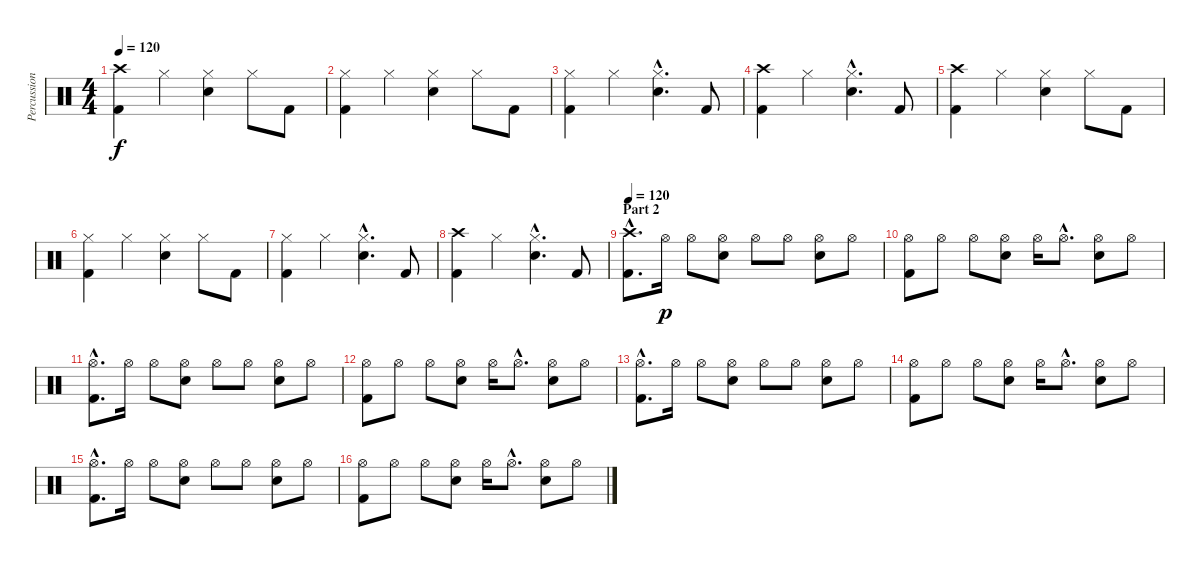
\track ("Percussion" "Percussion") {instrument percussion}
\staff {score}
\articulation defaults
\ts (4 4)
\tempo 120
\clef neutral
\ks c
("Crash high (hit)" "Kick (hit) 2").4{dy f} "Hi-Hat (closed)".4 ("Hi-Hat (closed)" "Electric Snare (hit)").4 "Hi-Hat (closed)".8 "Kick (hit) 2".8 |
("Hi-Hat (closed)" "Kick (hit) 2").4 "Hi-Hat (closed)".4 ("Hi-Hat (closed)" "Electric Snare (hit)").4 "Hi-Hat (closed)".8 "Kick (hit) 2".8 |
("Hi-Hat (closed)" "Kick (hit) 2").4 "Hi-Hat (closed)".4 ("Hi-Hat (closed)"{hac} "Electric Snare (hit)"{hac}).4{d} "Kick (hit) 2".8 |
("Crash high (hit)" "Kick (hit) 2").4 "Hi-Hat (closed)".4 ("Hi-Hat (closed)"{hac} "Electric Snare (hit)"{hac}).4{d} "Kick (hit) 2".8 |
("Crash high (hit)" "Kick (hit) 2").4 "Hi-Hat (closed)".4 ("Hi-Hat (closed)" "Electric Snare (hit)").4 "Hi-Hat (closed)".8 "Kick (hit) 2".8 |
("Hi-Hat (closed)" "Kick (hit) 2").4 "Hi-Hat (closed)".4 ("Hi-Hat (closed)" "Electric Snare (hit)").4 "Hi-Hat (closed)".8 "Kick (hit) 2".8 |
("Hi-Hat (closed)" "Kick (hit) 2").4 "Hi-Hat (closed)".4 ("Hi-Hat (closed)"{hac} "Electric Snare (hit)"{hac}).4{d} "Kick (hit) 2".8 |
("Crash high (hit)" "Kick (hit) 2").4 "Hi-Hat (closed)".4 ("Hi-Hat (closed)"{hac} "Electric Snare (hit)"{hac}).4{d} "Kick (hit) 2".8 |
\section ("" "Part 2")
\tempo 120
("Crash high (hit)"{hac} "Kick (hit) 2"{hac}).8{d} "Hi-Hat (open)".16{dy p} "Hi-Hat (open)".8 ("Hi-Hat (open)" "Electric Snare (hit)").8 "Hi-Hat (open)".8 "Hi-Hat (open)".8 ("Hi-Hat (open)" "Electric Snare (hit)").8 "Hi-Hat (open)".8 |
("Hi-Hat (open)" "Kick (hit) 2").8 "Hi-Hat (open)".8 "Hi-Hat (open)".8 ("Hi-Hat (open)" "Electric Snare (hit)").8 "Hi-Hat (open)".16 "Hi-Hat (open)"{hac}.8{d} ("Hi-Hat (open)" "Electric Snare (hit)").8 "Hi-Hat (open)".8 |
("Hi-Hat (open)"{hac} "Kick (hit) 2"{hac}).8{d} "Hi-Hat (open)".16 "Hi-Hat (open)".8 ("Hi-Hat (open)" "Electric Snare (hit)").8 "Hi-Hat (open)".8 "Hi-Hat (open)".8 ("Hi-Hat (open)" "Electric Snare (hit)").8 "Hi-Hat (open)".8 |
("Hi-Hat (open)" "Kick (hit) 2").8 "Hi-Hat (open)".8 "Hi-Hat (open)".8 ("Hi-Hat (open)" "Electric Snare (hit)").8 "Hi-Hat (open)".16 "Hi-Hat (open)"{hac}.8{d} ("Hi-Hat (open)" "Electric Snare (hit)").8 "Hi-Hat (open)".8 |
("Hi-Hat (open)"{hac} "Kick (hit) 2"{hac}).8{d} "Hi-Hat (open)".16 "Hi-Hat (open)".8 ("Hi-Hat (open)" "Electric Snare (hit)").8 "Hi-Hat (open)".8 "Hi-Hat (open)".8 ("Hi-Hat (open)" "Electric Snare (hit)").8 "Hi-Hat (open)".8 |
("Hi-Hat (open)" "Kick (hit) 2").8 "Hi-Hat (open)".8 "Hi-Hat (open)".8 ("Hi-Hat (open)" "Electric Snare (hit)").8 "Hi-Hat (open)".16 "Hi-Hat (open)"{hac}.8{d} ("Hi-Hat (open)" "Electric Snare (hit)").8 "Hi-Hat (open)".8 |
("Hi-Hat (open)"{hac} "Kick (hit) 2"{hac}).8{d} "Hi-Hat (open)".16 "Hi-Hat (open)".8 ("Hi-Hat (open)" "Electric Snare (hit)").8 "Hi-Hat (open)".8 "Hi-Hat (open)".8 ("Hi-Hat (open)" "Electric Snare (hit)").8 "Hi-Hat (open)".8 |
("Hi-Hat (open)" "Kick (hit) 2").8 "Hi-Hat (open)".8 "Hi-Hat (open)".8 ("Hi-Hat (open)" "Electric Snare (hit)").8 "Hi-Hat (open)".16 "Hi-Hat (open)"{hac}.8{d} ("Hi-Hat (open)" "Electric Snare (hit)").8 "Hi-Hat (open)".8
